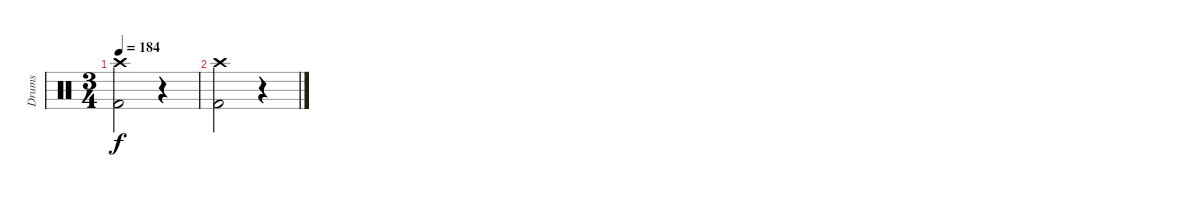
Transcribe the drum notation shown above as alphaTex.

\track ("Drums" "Drums") {instrument percussion}
\staff {score}
\articulation defaults
\ts (3 4)
\tempo 184
\clef neutral
\ks c
("Crash high (hit)" "Kick (hit) 2").2{dy f} r.4 |
("Crash high (hit)" "Kick (hit) 2").2 r.4
